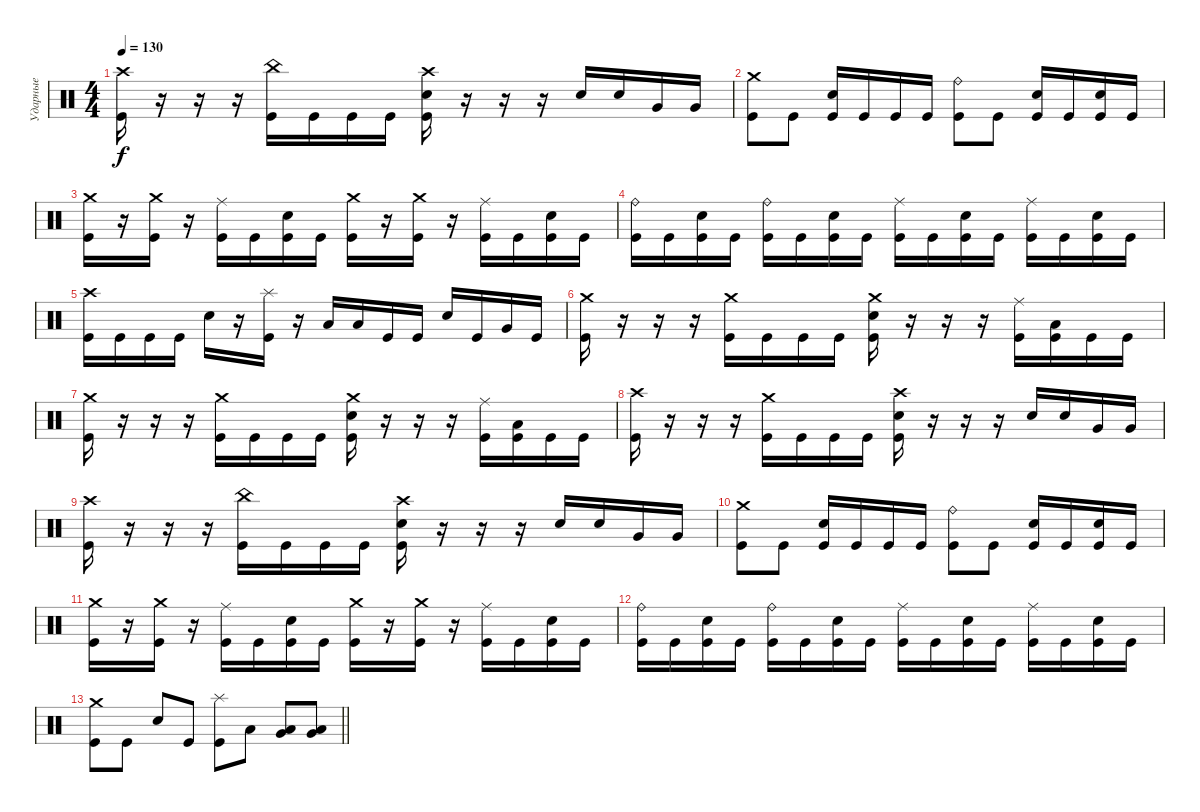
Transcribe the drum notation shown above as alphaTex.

\track ("Ударные" "Ударные") {instrument percussion}
\staff {score}
\articulation defaults
\ts (4 4)
\tempo 130
\clef neutral
\ks c
("Crash high (hit)" "Kick (hit)").16{dy f} r.16 r.16 r.16 ("China (hit)" "Kick (hit)").16 "Kick (hit)".16 "Kick (hit)".16 "Kick (hit)".16 ("Crash high (hit)" "Electric Snare (hit)" "Kick (hit)").16 r.16 r.16 r.16 "Electric Snare (hit)".16 "Electric Snare (hit)".16 "Very Low Tom (hit)".16 "Very Low Tom (hit)".16 |
("Crash medium (hit)" "Kick (hit)").8 "Kick (hit)".8 ("Electric Snare (hit)" "Kick (hit)").16 "Kick (hit)".16 "Kick (hit)".16 "Kick (hit)".16 ("Ride (bell)" "Kick (hit)").8 "Kick (hit)".8 ("Electric Snare (hit)" "Kick (hit)").16 "Kick (hit)".16 ("Electric Snare (hit)" "Kick (hit)").16 "Kick (hit)".16 |
("Crash medium (hit)" "Kick (hit)").16 r.16 ("Crash medium (hit)" "Kick (hit)").16 r.16 ("Ride (middle)" "Kick (hit)").16 "Kick (hit)".16 ("Electric Snare (hit)" "Kick (hit)").16 "Kick (hit)".16 ("Crash medium (hit)" "Kick (hit)").16 r.16 ("Crash medium (hit)" "Kick (hit)").16 r.16 ("Ride (middle)" "Kick (hit)").16 "Kick (hit)".16 ("Electric Snare (hit)" "Kick (hit)").16 "Kick (hit)".16 |
("Ride (bell)" "Kick (hit)").16 "Kick (hit)".16 ("Electric Snare (hit)" "Kick (hit)").16 "Kick (hit)".16 ("Ride (bell)" "Kick (hit)").16 "Kick (hit)".16 ("Electric Snare (hit)" "Kick (hit)").16 "Kick (hit)".16 ("Ride (middle)" "Kick (hit)").16 "Kick (hit)".16 ("Electric Snare (hit)" "Kick (hit)").16 "Kick (hit)".16 ("Ride (middle)" "Kick (hit)").16 "Kick (hit)".16 ("Electric Snare (hit)" "Kick (hit)").16 "Kick (hit)".16 |
("Crash high (hit)" "Kick (hit)").16 "Kick (hit)".16 "Kick (hit)".16 "Kick (hit)".16 "Electric Snare (hit)".16 r.16 ("Splash (hit)" "Kick (hit)").16 r.16 "Low Tom (hit)".16 "Low Tom (hit)".16 "Kick (hit)".16 "Kick (hit)".16 "Electric Snare (hit)".16 "Kick (hit)".16 "Very Low Tom (hit)".16 "Kick (hit)".16 |
("Crash medium (hit)" "Kick (hit)").16 r.16 r.16 r.16 ("Crash medium (hit)" "Kick (hit)").16 "Kick (hit)".16 "Kick (hit)".16 "Kick (hit)".16 ("Crash medium (hit)" "Electric Snare (hit)" "Kick (hit)").16 r.16 r.16 r.16 ("Ride (middle)" "Kick (hit)").16 ("Low Tom (hit)" "Kick (hit)").16 "Kick (hit)".16 "Kick (hit)".16 |
("Crash medium (hit)" "Kick (hit)").16 r.16 r.16 r.16 ("Crash medium (hit)" "Kick (hit)").16 "Kick (hit)".16 "Kick (hit)".16 "Kick (hit)".16 ("Crash medium (hit)" "Electric Snare (hit)" "Kick (hit)").16 r.16 r.16 r.16 ("Ride (middle)" "Kick (hit)").16 ("Low Tom (hit)" "Kick (hit)").16 "Kick (hit)".16 "Kick (hit)".16 |
("Crash high (hit)" "Kick (hit)").16 r.16 r.16 r.16 ("Crash medium (hit)" "Kick (hit)").16 "Kick (hit)".16 "Kick (hit)".16 "Kick (hit)".16 ("Crash high (hit)" "Electric Snare (hit)" "Kick (hit)").16 r.16 r.16 r.16 "Electric Snare (hit)".16 "Electric Snare (hit)".16 "Very Low Tom (hit)".16 "Very Low Tom (hit)".16 |
("Crash high (hit)" "Kick (hit)").16 r.16 r.16 r.16 ("China (hit)" "Kick (hit)").16 "Kick (hit)".16 "Kick (hit)".16 "Kick (hit)".16 ("Crash high (hit)" "Electric Snare (hit)" "Kick (hit)").16 r.16 r.16 r.16 "Electric Snare (hit)".16 "Electric Snare (hit)".16 "Very Low Tom (hit)".16 "Very Low Tom (hit)".16 |
("Crash medium (hit)" "Kick (hit)").8 "Kick (hit)".8 ("Electric Snare (hit)" "Kick (hit)").16 "Kick (hit)".16 "Kick (hit)".16 "Kick (hit)".16 ("Ride (bell)" "Kick (hit)").8 "Kick (hit)".8 ("Electric Snare (hit)" "Kick (hit)").16 "Kick (hit)".16 ("Electric Snare (hit)" "Kick (hit)").16 "Kick (hit)".16 |
("Crash medium (hit)" "Kick (hit)").16 r.16 ("Crash medium (hit)" "Kick (hit)").16 r.16 ("Ride (middle)" "Kick (hit)").16 "Kick (hit)".16 ("Electric Snare (hit)" "Kick (hit)").16 "Kick (hit)".16 ("Crash medium (hit)" "Kick (hit)").16 r.16 ("Crash medium (hit)" "Kick (hit)").16 r.16 ("Ride (middle)" "Kick (hit)").16 "Kick (hit)".16 ("Electric Snare (hit)" "Kick (hit)").16 "Kick (hit)".16 |
("Ride (bell)" "Kick (hit)").16 "Kick (hit)".16 ("Electric Snare (hit)" "Kick (hit)").16 "Kick (hit)".16 ("Ride (bell)" "Kick (hit)").16 "Kick (hit)".16 ("Electric Snare (hit)" "Kick (hit)").16 "Kick (hit)".16 ("Ride (middle)" "Kick (hit)").16 "Kick (hit)".16 ("Electric Snare (hit)" "Kick (hit)").16 "Kick (hit)".16 ("Ride (middle)" "Kick (hit)").16 "Kick (hit)".16 ("Electric Snare (hit)" "Kick (hit)").16 "Kick (hit)".16 |
\barLineRight lightlight
("Crash medium (hit)" "Kick (hit)").8 "Kick (hit)".8 "Electric Snare (hit)".8 "Kick (hit)".8 ("Splash (hit)" "Kick (hit)").8 "Low Tom (hit)".8 ("Very Low Tom (hit)" "Low Floor Tom (hit)").8 ("Very Low Tom (hit)" "Low Floor Tom (hit)").8
